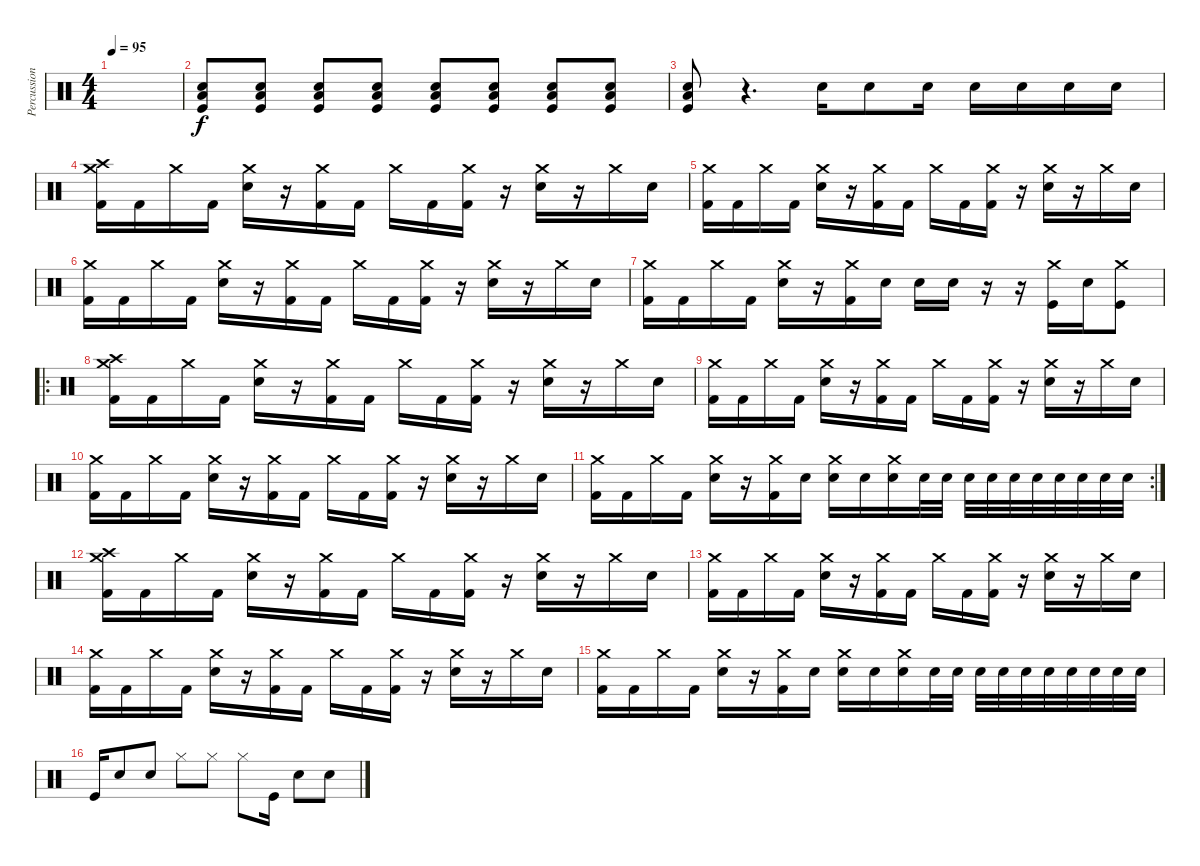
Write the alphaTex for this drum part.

\track ("Percussion" "Percussion") {instrument percussion}
\staff {score}
\articulation defaults
\ts (4 4)
\tempo 95
\clef neutral
\ks c
|
("Snare (hit) 2" "Low Tom (hit)" "Kick (hit)").8 ("Snare (hit) 2" "Low Tom (hit)" "Kick (hit)").8 ("Snare (hit) 2" "Low Tom (hit)" "Kick (hit)").8 ("Snare (hit) 2" "Low Tom (hit)" "Kick (hit)").8 ("Snare (hit) 2" "Low Tom (hit)" "Kick (hit)").8 ("Snare (hit) 2" "Low Tom (hit)" "Kick (hit)").8 ("Snare (hit) 2" "Low Tom (hit)" "Kick (hit)").8 ("Snare (hit) 2" "Low Tom (hit)" "Kick (hit)").8 |
("Snare (hit) 2" "Low Tom (hit)" "Kick (hit)").8 r.4{d} "Snare (hit) 2".16 "Snare (hit) 2".8 "Snare (hit) 2".16 "Snare (hit) 2".16 "Snare (hit) 2".16 "Snare (hit) 2".16 "Snare (hit) 2".16 |
("Crash medium (hit)" "Crash high (hit)" "Kick (hit) 2").16 "Kick (hit) 2".16 "Crash medium (hit)".16 "Kick (hit) 2".16 ("Crash medium (hit)" "Electric Snare (hit)").16 r.16 ("Crash medium (hit)" "Kick (hit) 2").16 "Kick (hit) 2".16 "Crash medium (hit)".16 "Kick (hit) 2".16 ("Crash medium (hit)" "Kick (hit) 2").16 r.16 ("Crash medium (hit)" "Electric Snare (hit)").16 r.16 "Crash medium (hit)".16 "Electric Snare (hit)".16 |
("Crash medium (hit)" "Kick (hit) 2").16 "Kick (hit) 2".16 "Crash medium (hit)".16 "Kick (hit) 2".16 ("Crash medium (hit)" "Electric Snare (hit)").16 r.16 ("Crash medium (hit)" "Kick (hit) 2").16 "Kick (hit) 2".16 "Crash medium (hit)".16 "Kick (hit) 2".16 ("Crash medium (hit)" "Kick (hit) 2").16 r.16 ("Crash medium (hit)" "Electric Snare (hit)").16 r.16 "Crash medium (hit)".16 "Electric Snare (hit)".16 |
("Crash medium (hit)" "Kick (hit) 2").16 "Kick (hit) 2".16 "Crash medium (hit)".16 "Kick (hit) 2".16 ("Crash medium (hit)" "Electric Snare (hit)").16 r.16 ("Crash medium (hit)" "Kick (hit) 2").16 "Kick (hit) 2".16 "Crash medium (hit)".16 "Kick (hit) 2".16 ("Crash medium (hit)" "Kick (hit) 2").16 r.16 ("Crash medium (hit)" "Electric Snare (hit)").16 r.16 "Crash medium (hit)".16 "Electric Snare (hit)".16 |
("Crash medium (hit)" "Kick (hit) 2").16 "Kick (hit) 2".16 "Crash medium (hit)".16 "Kick (hit) 2".16 ("Crash medium (hit)" "Electric Snare (hit)").16 r.16 ("Crash medium (hit)" "Kick (hit) 2").16 "Electric Snare (hit)".16 "Electric Snare (hit)".16 "Electric Snare (hit)".16 r.16 r.16 ("Crash medium (hit)" "Kick (hit)").16 "Electric Snare (hit)".16 ("Crash medium (hit)" "Kick (hit)").8 |
\ro
("Crash medium (hit)" "Crash high (hit)" "Kick (hit) 2").16 "Kick (hit) 2".16 "Crash medium (hit)".16 "Kick (hit) 2".16 ("Crash medium (hit)" "Electric Snare (hit)").16 r.16 ("Crash medium (hit)" "Kick (hit) 2").16 "Kick (hit) 2".16 "Crash medium (hit)".16 "Kick (hit) 2".16 ("Crash medium (hit)" "Kick (hit) 2").16 r.16 ("Crash medium (hit)" "Electric Snare (hit)").16 r.16 "Crash medium (hit)".16 "Electric Snare (hit)".16 |
("Crash medium (hit)" "Kick (hit) 2").16 "Kick (hit) 2".16 "Crash medium (hit)".16 "Kick (hit) 2".16 ("Crash medium (hit)" "Electric Snare (hit)").16 r.16 ("Crash medium (hit)" "Kick (hit) 2").16 "Kick (hit) 2".16 "Crash medium (hit)".16 "Kick (hit) 2".16 ("Crash medium (hit)" "Kick (hit) 2").16 r.16 ("Crash medium (hit)" "Electric Snare (hit)").16 r.16 "Crash medium (hit)".16 "Electric Snare (hit)".16 |
("Crash medium (hit)" "Kick (hit) 2").16 "Kick (hit) 2".16 "Crash medium (hit)".16 "Kick (hit) 2".16 ("Crash medium (hit)" "Electric Snare (hit)").16 r.16 ("Crash medium (hit)" "Kick (hit) 2").16 "Kick (hit) 2".16 "Crash medium (hit)".16 "Kick (hit) 2".16 ("Crash medium (hit)" "Kick (hit) 2").16 r.16 ("Crash medium (hit)" "Electric Snare (hit)").16 r.16 "Crash medium (hit)".16 "Electric Snare (hit)".16 |
\rc 2
("Crash medium (hit)" "Kick (hit) 2").16 "Kick (hit) 2".16 "Crash medium (hit)".16 "Kick (hit) 2".16 ("Crash medium (hit)" "Electric Snare (hit)").16 r.16 ("Crash medium (hit)" "Kick (hit) 2").16 "Electric Snare (hit)".16 ("Crash medium (hit)" "Electric Snare (hit)").16 "Electric Snare (hit)".16 ("Crash medium (hit)" "Electric Snare (hit)").16 "Electric Snare (hit)".32 "Electric Snare (hit)".32 "Electric Snare (hit)".32 "Electric Snare (hit)".32 "Electric Snare (hit)".32 "Electric Snare (hit)".32 "Electric Snare (hit)".32 "Electric Snare (hit)".32 "Electric Snare (hit)".32 "Electric Snare (hit)".32 |
("Crash medium (hit)" "Crash high (hit)" "Kick (hit) 2").16 "Kick (hit) 2".16 "Crash medium (hit)".16 "Kick (hit) 2".16 ("Crash medium (hit)" "Electric Snare (hit)").16 r.16 ("Crash medium (hit)" "Kick (hit) 2").16 "Kick (hit) 2".16 "Crash medium (hit)".16 "Kick (hit) 2".16 ("Crash medium (hit)" "Kick (hit) 2").16 r.16 ("Crash medium (hit)" "Electric Snare (hit)").16 r.16 "Crash medium (hit)".16 "Electric Snare (hit)".16 |
("Crash medium (hit)" "Kick (hit) 2").16 "Kick (hit) 2".16 "Crash medium (hit)".16 "Kick (hit) 2".16 ("Crash medium (hit)" "Electric Snare (hit)").16 r.16 ("Crash medium (hit)" "Kick (hit) 2").16 "Kick (hit) 2".16 "Crash medium (hit)".16 "Kick (hit) 2".16 ("Crash medium (hit)" "Kick (hit) 2").16 r.16 ("Crash medium (hit)" "Electric Snare (hit)").16 r.16 "Crash medium (hit)".16 "Electric Snare (hit)".16 |
("Crash medium (hit)" "Kick (hit) 2").16 "Kick (hit) 2".16 "Crash medium (hit)".16 "Kick (hit) 2".16 ("Crash medium (hit)" "Electric Snare (hit)").16 r.16 ("Crash medium (hit)" "Kick (hit) 2").16 "Kick (hit) 2".16 "Crash medium (hit)".16 "Kick (hit) 2".16 ("Crash medium (hit)" "Kick (hit) 2").16 r.16 ("Crash medium (hit)" "Electric Snare (hit)").16 r.16 "Crash medium (hit)".16 "Electric Snare (hit)".16 |
("Crash medium (hit)" "Kick (hit) 2").16 "Kick (hit) 2".16 "Crash medium (hit)".16 "Kick (hit) 2".16 ("Crash medium (hit)" "Electric Snare (hit)").16 r.16 ("Crash medium (hit)" "Kick (hit) 2").16 "Electric Snare (hit)".16 ("Crash medium (hit)" "Electric Snare (hit)").16 "Electric Snare (hit)".16 ("Crash medium (hit)" "Electric Snare (hit)").16 "Electric Snare (hit)".32 "Electric Snare (hit)".32 "Electric Snare (hit)".32 "Electric Snare (hit)".32 "Electric Snare (hit)".32 "Electric Snare (hit)".32 "Electric Snare (hit)".32 "Electric Snare (hit)".32 "Electric Snare (hit)".32 "Electric Snare (hit)".32 |
"Kick (hit)".16 "Snare (hit) 2".8 "Snare (hit) 2".8 "Hi-Hat (closed)".8 "Hi-Hat (closed)".8 "Hi-Hat (closed)".8 "Kick (hit)".16 "Snare (hit) 2".8 "Snare (hit) 2".8
